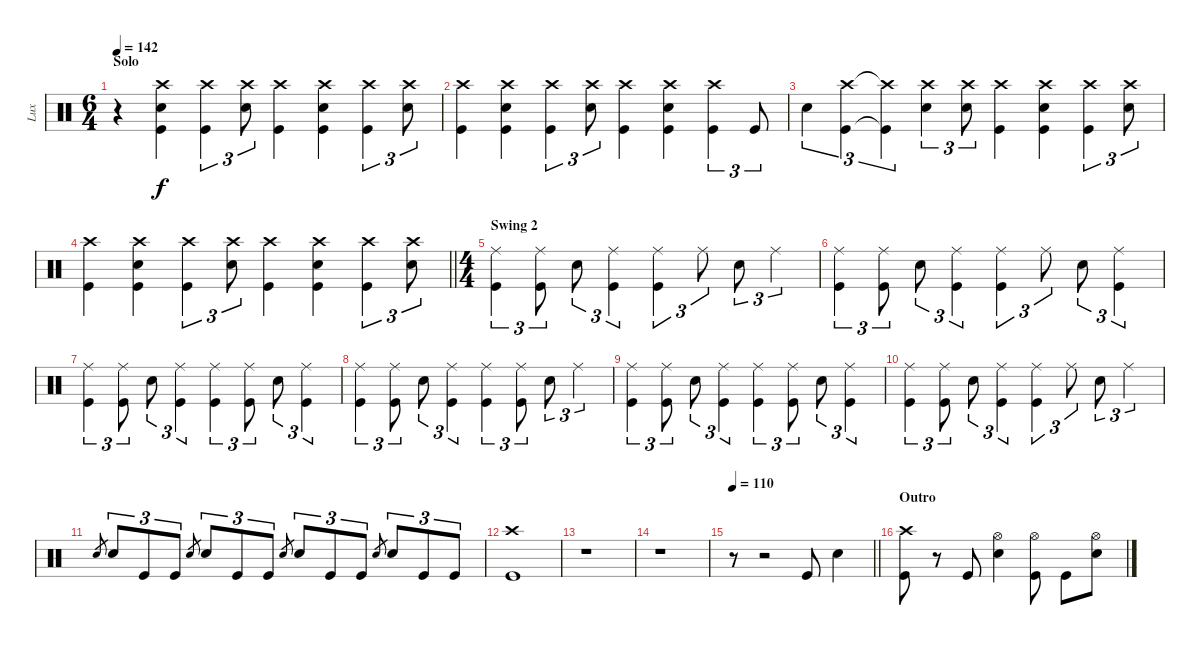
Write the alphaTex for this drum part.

\track ("Lux" "Lux") {instrument percussion}
\staff {score}
\articulation defaults
\ts (6 4)
\section ("" "Solo")
\tempo 142
\clef neutral
\ks c
r.4{dy f} ("Crash high (hit)" "Snare (hit) 2" "Kick (hit)").4 ("Crash high (hit)" "Kick (hit)").4{tu (3 2)} ("Crash high (hit)" "Snare (hit) 2").8{tu (3 2)} ("Crash high (hit)" "Kick (hit)").4 ("Crash high (hit)" "Snare (hit) 2" "Kick (hit)").4 ("Crash high (hit)" "Kick (hit)").4{tu (3 2)} ("Crash high (hit)" "Snare (hit) 2").8{tu (3 2)} |
("Crash high (hit)" "Kick (hit)").4 ("Crash high (hit)" "Snare (hit) 2" "Kick (hit)").4 ("Crash high (hit)" "Kick (hit)").4{tu (3 2)} ("Crash high (hit)" "Snare (hit) 2").8{tu (3 2)} ("Crash high (hit)" "Kick (hit)").4 ("Crash high (hit)" "Snare (hit) 2" "Kick (hit)").4 ("Crash high (hit)" "Kick (hit)").4{tu (3 2)} "Kick (hit)".8{tu (3 2)} |
"Snare (hit) 2".4{tu (3 2)} ("Crash high (hit)" "Kick (hit)").4{tu (3 2)} ("Crash high (hit)"{t} "Kick (hit)"{t}).4{tu (3 2)} ("Crash high (hit)" "Snare (hit) 2").4{tu (3 2)} ("Crash high (hit)" "Snare (hit) 2").8{tu (3 2)} ("Crash high (hit)" "Kick (hit)").4 ("Crash high (hit)" "Snare (hit) 2" "Kick (hit)").4 ("Crash high (hit)" "Kick (hit)").4{tu (3 2)} ("Crash high (hit)" "Snare (hit) 2").8{tu (3 2)} |
\barLineRight lightlight
("Crash high (hit)" "Kick (hit)").4 ("Crash high (hit)" "Snare (hit) 2" "Kick (hit)").4 ("Crash high (hit)" "Kick (hit)").4{tu (3 2)} ("Crash high (hit)" "Snare (hit) 2").8{tu (3 2)} ("Crash high (hit)" "Kick (hit)").4 ("Crash high (hit)" "Snare (hit) 2" "Kick (hit)").4 ("Crash high (hit)" "Kick (hit)").4{tu (3 2)} ("Crash high (hit)" "Snare (hit) 2").8{tu (3 2)} |
\ts (4 4)
\section ("" "Swing 2")
("Ride (middle)" "Kick (hit)").4{tu (3 2)} ("Ride (middle)" "Kick (hit)").8{tu (3 2)} "Snare (hit) 2".8{tu (3 2)} ("Ride (middle)" "Kick (hit)").4{tu (3 2)} ("Ride (middle)" "Kick (hit)").4{tu (3 2)} "Ride (middle)".8{tu (3 2)} "Snare (hit) 2".8{tu (3 2)} "Ride (middle)".4{tu (3 2)} |
("Ride (middle)" "Kick (hit)").4{tu (3 2)} ("Ride (middle)" "Kick (hit)").8{tu (3 2)} "Snare (hit) 2".8{tu (3 2)} ("Ride (middle)" "Kick (hit)").4{tu (3 2)} ("Ride (middle)" "Kick (hit)").4{tu (3 2)} "Ride (middle)".8{tu (3 2)} "Snare (hit) 2".8{tu (3 2)} ("Ride (middle)" "Kick (hit)").4{tu (3 2)} |
("Ride (middle)" "Kick (hit)").4{tu (3 2)} ("Ride (middle)" "Kick (hit)").8{tu (3 2)} "Snare (hit) 2".8{tu (3 2)} ("Ride (middle)" "Kick (hit)").4{tu (3 2)} ("Ride (middle)" "Kick (hit)").4{tu (3 2)} ("Ride (middle)" "Kick (hit)").8{tu (3 2)} "Snare (hit) 2".8{tu (3 2)} ("Ride (middle)" "Kick (hit)").4{tu (3 2)} |
("Ride (middle)" "Kick (hit)").4{tu (3 2)} ("Ride (middle)" "Kick (hit)").8{tu (3 2)} "Snare (hit) 2".8{tu (3 2)} ("Ride (middle)" "Kick (hit)").4{tu (3 2)} ("Ride (middle)" "Kick (hit)").4{tu (3 2)} ("Ride (middle)" "Kick (hit)").8{tu (3 2)} "Snare (hit) 2".8{tu (3 2)} "Ride (middle)".4{tu (3 2)} |
("Ride (middle)" "Kick (hit)").4{tu (3 2)} ("Ride (middle)" "Kick (hit)").8{tu (3 2)} "Snare (hit) 2".8{tu (3 2)} ("Ride (middle)" "Kick (hit)").4{tu (3 2)} ("Ride (middle)" "Kick (hit)").4{tu (3 2)} ("Ride (middle)" "Kick (hit)").8{tu (3 2)} "Snare (hit) 2".8{tu (3 2)} ("Ride (middle)" "Kick (hit)").4{tu (3 2)} |
("Ride (middle)" "Kick (hit)").4{tu (3 2)} ("Ride (middle)" "Kick (hit)").8{tu (3 2)} "Snare (hit) 2".8{tu (3 2)} ("Ride (middle)" "Kick (hit)").4{tu (3 2)} ("Ride (middle)" "Kick (hit)").4{tu (3 2)} "Ride (middle)".8{tu (3 2)} "Snare (hit) 2".8{tu (3 2)} "Ride (middle)".4{tu (3 2)} |
"Snare (hit)".8{gr} "Snare (hit) 2".8{tu (3 2)} "Kick (hit)".8{tu (3 2)} "Kick (hit)".8{tu (3 2)} "Snare (hit)".8{gr} "Snare (hit) 2".8{tu (3 2)} "Kick (hit)".8{tu (3 2)} "Kick (hit)".8{tu (3 2)} "Snare (hit)".8{gr} "Snare (hit) 2".8{tu (3 2)} "Kick (hit)".8{tu (3 2)} "Kick (hit)".8{tu (3 2)} "Snare (hit)".8{gr} "Snare (hit) 2".8{tu (3 2)} "Kick (hit)".8{tu (3 2)} "Kick (hit)".8{tu (3 2)} |
("Crash high (hit)" "Kick (hit)").1 |
r.1 |
r.1 |
\tempo 110
\barLineRight lightlight
r.8 r.2 "Kick (hit)".8 "Snare (hit) 2".4 |
\section ("" "Outro")
("Crash high (hit)" "Kick (hit)").8 r.8 "Kick (hit)".8 ("Hi-Hat (open)" "Snare (hit) 2").4 ("Hi-Hat (open)" "Kick (hit)").8 "Kick (hit)".8 ("Hi-Hat (open)" "Snare (hit) 2").8
